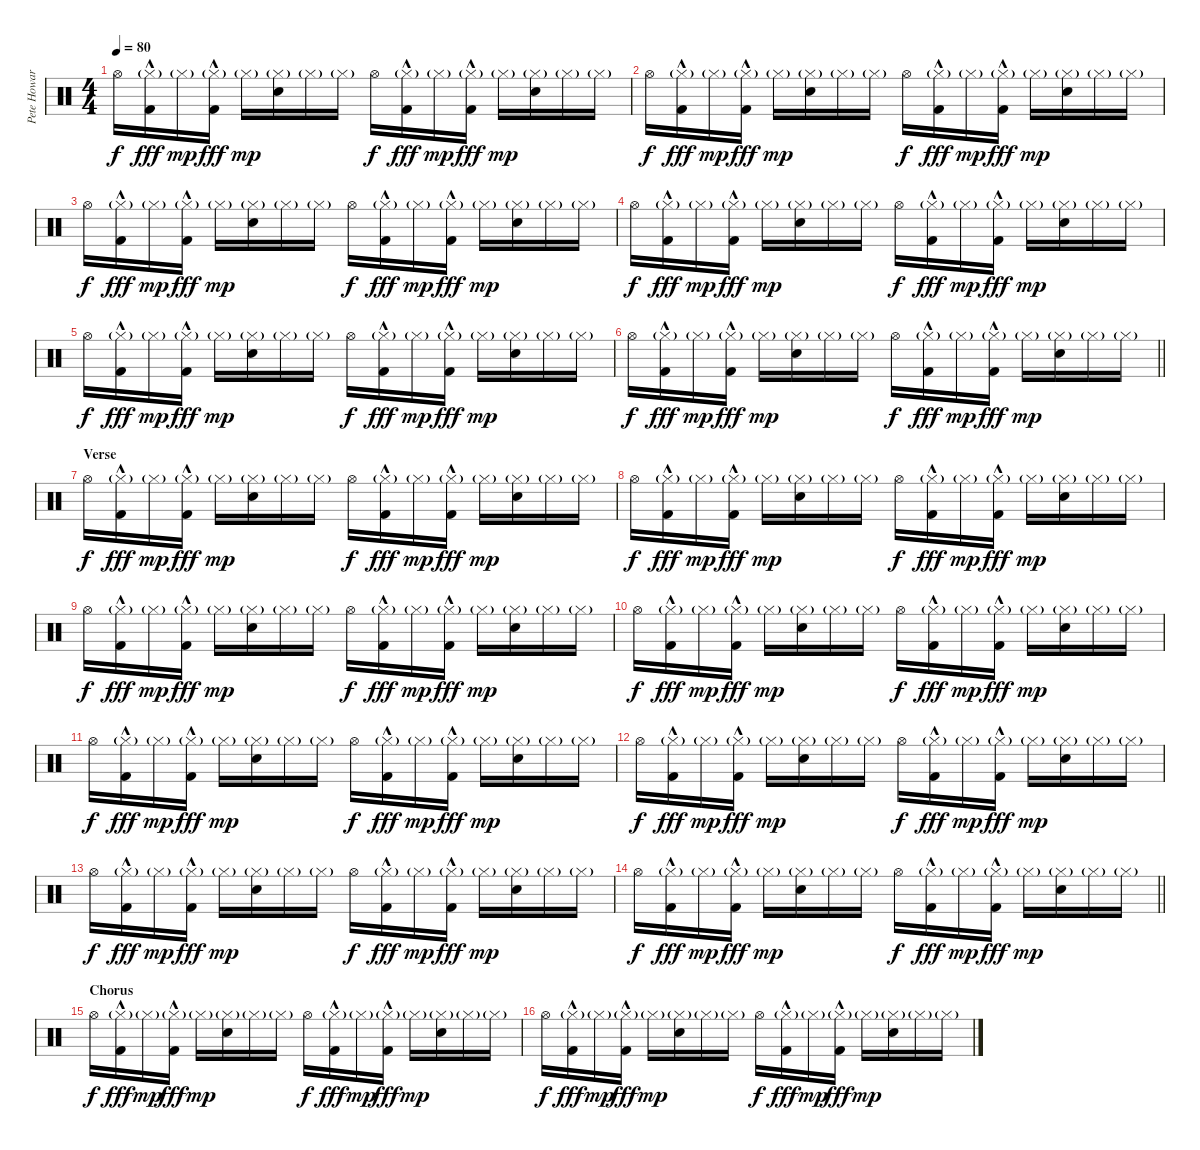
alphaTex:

\track ("Pete Howard - Drums" "Pete Howar") {instrument percussion}
\staff {score}
\articulation defaults
\ts (4 4)
\tempo 80
\clef neutral
\ks c "Hi-Hat (open)".16{dy f}
("Hi-Hat (closed)"{g} "Kick (hit) 2"{hac}).16{dy fff} "Hi-Hat (closed)"{g}.16{dy mp} ("Hi-Hat (closed)"{g} "Kick (hit) 2"{hac}).16{dy fff} "Hi-Hat (closed)"{g}.16{dy mp} ("Hi-Hat (closed)"{g} "Electric Snare (hit)").16 "Hi-Hat (closed)"{g}.16 "Hi-Hat (closed)"{g}.16 "Hi-Hat (open)".16{dy f} ("Hi-Hat (closed)"{g} "Kick (hit) 2"{hac}).16{dy fff} "Hi-Hat (closed)"{g}.16{dy mp} ("Hi-Hat (closed)"{g} "Kick (hit) 2"{hac}).16{dy fff} "Hi-Hat (closed)"{g}.16{dy mp} ("Hi-Hat (closed)"{g} "Electric Snare (hit)").16 "Hi-Hat (closed)"{g}.16 "Hi-Hat (closed)"{g}.16 |
"Hi-Hat (open)".16{dy f} ("Hi-Hat (closed)"{g} "Kick (hit) 2"{hac}).16{dy fff} "Hi-Hat (closed)"{g}.16{dy mp} ("Hi-Hat (closed)"{g} "Kick (hit) 2"{hac}).16{dy fff} "Hi-Hat (closed)"{g}.16{dy mp} ("Hi-Hat (closed)"{g} "Electric Snare (hit)").16 "Hi-Hat (closed)"{g}.16 "Hi-Hat (closed)"{g}.16 "Hi-Hat (open)".16{dy f} ("Hi-Hat (closed)"{g} "Kick (hit) 2"{hac}).16{dy fff} "Hi-Hat (closed)"{g}.16{dy mp} ("Hi-Hat (closed)"{g} "Kick (hit) 2"{hac}).16{dy fff} "Hi-Hat (closed)"{g}.16{dy mp} ("Hi-Hat (closed)"{g} "Electric Snare (hit)").16 "Hi-Hat (closed)"{g}.16 "Hi-Hat (closed)"{g}.16 |
"Hi-Hat (open)".16{dy f} ("Hi-Hat (closed)"{g} "Kick (hit) 2"{hac}).16{dy fff} "Hi-Hat (closed)"{g}.16{dy mp} ("Hi-Hat (closed)"{g} "Kick (hit) 2"{hac}).16{dy fff} "Hi-Hat (closed)"{g}.16{dy mp} ("Hi-Hat (closed)"{g} "Electric Snare (hit)").16 "Hi-Hat (closed)"{g}.16 "Hi-Hat (closed)"{g}.16 "Hi-Hat (open)".16{dy f} ("Hi-Hat (closed)"{g} "Kick (hit) 2"{hac}).16{dy fff} "Hi-Hat (closed)"{g}.16{dy mp} ("Hi-Hat (closed)"{g} "Kick (hit) 2"{hac}).16{dy fff} "Hi-Hat (closed)"{g}.16{dy mp} ("Hi-Hat (closed)"{g} "Electric Snare (hit)").16 "Hi-Hat (closed)"{g}.16 "Hi-Hat (closed)"{g}.16 |
"Hi-Hat (open)".16{dy f} ("Hi-Hat (closed)"{g} "Kick (hit) 2"{hac}).16{dy fff} "Hi-Hat (closed)"{g}.16{dy mp} ("Hi-Hat (closed)"{g} "Kick (hit) 2"{hac}).16{dy fff} "Hi-Hat (closed)"{g}.16{dy mp} ("Hi-Hat (closed)"{g} "Electric Snare (hit)").16 "Hi-Hat (closed)"{g}.16 "Hi-Hat (closed)"{g}.16 "Hi-Hat (open)".16{dy f} ("Hi-Hat (closed)"{g} "Kick (hit) 2"{hac}).16{dy fff} "Hi-Hat (closed)"{g}.16{dy mp} ("Hi-Hat (closed)"{g} "Kick (hit) 2"{hac}).16{dy fff} "Hi-Hat (closed)"{g}.16{dy mp} ("Hi-Hat (closed)"{g} "Electric Snare (hit)").16 "Hi-Hat (closed)"{g}.16 "Hi-Hat (closed)"{g}.16 |
"Hi-Hat (open)".16{dy f} ("Hi-Hat (closed)"{g} "Kick (hit) 2"{hac}).16{dy fff} "Hi-Hat (closed)"{g}.16{dy mp} ("Hi-Hat (closed)"{g} "Kick (hit) 2"{hac}).16{dy fff} "Hi-Hat (closed)"{g}.16{dy mp} ("Hi-Hat (closed)"{g} "Electric Snare (hit)").16 "Hi-Hat (closed)"{g}.16 "Hi-Hat (closed)"{g}.16 "Hi-Hat (open)".16{dy f} ("Hi-Hat (closed)"{g} "Kick (hit) 2"{hac}).16{dy fff} "Hi-Hat (closed)"{g}.16{dy mp} ("Hi-Hat (closed)"{g} "Kick (hit) 2"{hac}).16{dy fff} "Hi-Hat (closed)"{g}.16{dy mp} ("Hi-Hat (closed)"{g} "Electric Snare (hit)").16 "Hi-Hat (closed)"{g}.16 "Hi-Hat (closed)"{g}.16 |
\barLineRight lightlight "Hi-Hat (open)".16{dy f}
("Hi-Hat (closed)"{g} "Kick (hit) 2"{hac}).16{dy fff} "Hi-Hat (closed)"{g}.16{dy mp} ("Hi-Hat (closed)"{g} "Kick (hit) 2"{hac}).16{dy fff} "Hi-Hat (closed)"{g}.16{dy mp} ("Hi-Hat (closed)"{g} "Electric Snare (hit)").16 "Hi-Hat (closed)"{g}.16 "Hi-Hat (closed)"{g}.16 "Hi-Hat (open)".16{dy f} ("Hi-Hat (closed)"{g} "Kick (hit) 2"{hac}).16{dy fff} "Hi-Hat (closed)"{g}.16{dy mp} ("Hi-Hat (closed)"{g} "Kick (hit) 2"{hac}).16{dy fff} "Hi-Hat (closed)"{g}.16{dy mp} ("Hi-Hat (closed)"{g} "Electric Snare (hit)").16 "Hi-Hat (closed)"{g}.16 "Hi-Hat (closed)"{g}.16 |
\section ("" "Verse")
"Hi-Hat (open)".16{dy f} ("Hi-Hat (closed)"{g} "Kick (hit) 2"{hac}).16{dy fff} "Hi-Hat (closed)"{g}.16{dy mp} ("Hi-Hat (closed)"{g} "Kick (hit) 2"{hac}).16{dy fff} "Hi-Hat (closed)"{g}.16{dy mp} ("Hi-Hat (closed)"{g} "Electric Snare (hit)").16 "Hi-Hat (closed)"{g}.16 "Hi-Hat (closed)"{g}.16 "Hi-Hat (open)".16{dy f} ("Hi-Hat (closed)"{g} "Kick (hit) 2"{hac}).16{dy fff} "Hi-Hat (closed)"{g}.16{dy mp} ("Hi-Hat (closed)"{g} "Kick (hit) 2"{hac}).16{dy fff} "Hi-Hat (closed)"{g}.16{dy mp} ("Hi-Hat (closed)"{g} "Electric Snare (hit)").16 "Hi-Hat (closed)"{g}.16 "Hi-Hat (closed)"{g}.16 |
"Hi-Hat (open)".16{dy f} ("Hi-Hat (closed)"{g} "Kick (hit) 2"{hac}).16{dy fff} "Hi-Hat (closed)"{g}.16{dy mp} ("Hi-Hat (closed)"{g} "Kick (hit) 2"{hac}).16{dy fff} "Hi-Hat (closed)"{g}.16{dy mp} ("Hi-Hat (closed)"{g} "Electric Snare (hit)").16 "Hi-Hat (closed)"{g}.16 "Hi-Hat (closed)"{g}.16 "Hi-Hat (open)".16{dy f} ("Hi-Hat (closed)"{g} "Kick (hit) 2"{hac}).16{dy fff} "Hi-Hat (closed)"{g}.16{dy mp} ("Hi-Hat (closed)"{g} "Kick (hit) 2"{hac}).16{dy fff} "Hi-Hat (closed)"{g}.16{dy mp} ("Hi-Hat (closed)"{g} "Electric Snare (hit)").16 "Hi-Hat (closed)"{g}.16 "Hi-Hat (closed)"{g}.16 |
"Hi-Hat (open)".16{dy f} ("Hi-Hat (closed)"{g} "Kick (hit) 2"{hac}).16{dy fff} "Hi-Hat (closed)"{g}.16{dy mp} ("Hi-Hat (closed)"{g} "Kick (hit) 2"{hac}).16{dy fff} "Hi-Hat (closed)"{g}.16{dy mp} ("Hi-Hat (closed)"{g} "Electric Snare (hit)").16 "Hi-Hat (closed)"{g}.16 "Hi-Hat (closed)"{g}.16 "Hi-Hat (open)".16{dy f} ("Hi-Hat (closed)"{g} "Kick (hit) 2"{hac}).16{dy fff} "Hi-Hat (closed)"{g}.16{dy mp} ("Hi-Hat (closed)"{g} "Kick (hit) 2"{hac}).16{dy fff} "Hi-Hat (closed)"{g}.16{dy mp} ("Hi-Hat (closed)"{g} "Electric Snare (hit)").16 "Hi-Hat (closed)"{g}.16 "Hi-Hat (closed)"{g}.16 |
"Hi-Hat (open)".16{dy f} ("Hi-Hat (closed)"{g} "Kick (hit) 2"{hac}).16{dy fff} "Hi-Hat (closed)"{g}.16{dy mp} ("Hi-Hat (closed)"{g} "Kick (hit) 2"{hac}).16{dy fff} "Hi-Hat (closed)"{g}.16{dy mp} ("Hi-Hat (closed)"{g} "Electric Snare (hit)").16 "Hi-Hat (closed)"{g}.16 "Hi-Hat (closed)"{g}.16 "Hi-Hat (open)".16{dy f} ("Hi-Hat (closed)"{g} "Kick (hit) 2"{hac}).16{dy fff} "Hi-Hat (closed)"{g}.16{dy mp} ("Hi-Hat (closed)"{g} "Kick (hit) 2"{hac}).16{dy fff} "Hi-Hat (closed)"{g}.16{dy mp} ("Hi-Hat (closed)"{g} "Electric Snare (hit)").16 "Hi-Hat (closed)"{g}.16 "Hi-Hat (closed)"{g}.16 |
"Hi-Hat (open)".16{dy f} ("Hi-Hat (closed)"{g} "Kick (hit) 2"{hac}).16{dy fff} "Hi-Hat (closed)"{g}.16{dy mp} ("Hi-Hat (closed)"{g} "Kick (hit) 2"{hac}).16{dy fff} "Hi-Hat (closed)"{g}.16{dy mp} ("Hi-Hat (closed)"{g} "Electric Snare (hit)").16 "Hi-Hat (closed)"{g}.16 "Hi-Hat (closed)"{g}.16 "Hi-Hat (open)".16{dy f} ("Hi-Hat (closed)"{g} "Kick (hit) 2"{hac}).16{dy fff} "Hi-Hat (closed)"{g}.16{dy mp} ("Hi-Hat (closed)"{g} "Kick (hit) 2"{hac}).16{dy fff} "Hi-Hat (closed)"{g}.16{dy mp} ("Hi-Hat (closed)"{g} "Electric Snare (hit)").16 "Hi-Hat (closed)"{g}.16 "Hi-Hat (closed)"{g}.16 |
"Hi-Hat (open)".16{dy f} ("Hi-Hat (closed)"{g} "Kick (hit) 2"{hac}).16{dy fff} "Hi-Hat (closed)"{g}.16{dy mp} ("Hi-Hat (closed)"{g} "Kick (hit) 2"{hac}).16{dy fff} "Hi-Hat (closed)"{g}.16{dy mp} ("Hi-Hat (closed)"{g} "Electric Snare (hit)").16 "Hi-Hat (closed)"{g}.16 "Hi-Hat (closed)"{g}.16 "Hi-Hat (open)".16{dy f} ("Hi-Hat (closed)"{g} "Kick (hit) 2"{hac}).16{dy fff} "Hi-Hat (closed)"{g}.16{dy mp} ("Hi-Hat (closed)"{g} "Kick (hit) 2"{hac}).16{dy fff} "Hi-Hat (closed)"{g}.16{dy mp} ("Hi-Hat (closed)"{g} "Electric Snare (hit)").16 "Hi-Hat (closed)"{g}.16 "Hi-Hat (closed)"{g}.16 |
"Hi-Hat (open)".16{dy f} ("Hi-Hat (closed)"{g} "Kick (hit) 2"{hac}).16{dy fff} "Hi-Hat (closed)"{g}.16{dy mp} ("Hi-Hat (closed)"{g} "Kick (hit) 2"{hac}).16{dy fff} "Hi-Hat (closed)"{g}.16{dy mp} ("Hi-Hat (closed)"{g} "Electric Snare (hit)").16 "Hi-Hat (closed)"{g}.16 "Hi-Hat (closed)"{g}.16 "Hi-Hat (open)".16{dy f} ("Hi-Hat (closed)"{g} "Kick (hit) 2"{hac}).16{dy fff} "Hi-Hat (closed)"{g}.16{dy mp} ("Hi-Hat (closed)"{g} "Kick (hit) 2"{hac}).16{dy fff} "Hi-Hat (closed)"{g}.16{dy mp} ("Hi-Hat (closed)"{g} "Electric Snare (hit)").16 "Hi-Hat (closed)"{g}.16 "Hi-Hat (closed)"{g}.16 |
\barLineRight lightlight "Hi-Hat (open)".16{dy f}
("Hi-Hat (closed)"{g} "Kick (hit) 2"{hac}).16{dy fff} "Hi-Hat (closed)"{g}.16{dy mp} ("Hi-Hat (closed)"{g} "Kick (hit) 2"{hac}).16{dy fff} "Hi-Hat (closed)"{g}.16{dy mp} ("Hi-Hat (closed)"{g} "Electric Snare (hit)").16 "Hi-Hat (closed)"{g}.16 "Hi-Hat (closed)"{g}.16 "Hi-Hat (open)".16{dy f} ("Hi-Hat (closed)"{g} "Kick (hit) 2"{hac}).16{dy fff} "Hi-Hat (closed)"{g}.16{dy mp} ("Hi-Hat (closed)"{g} "Kick (hit) 2"{hac}).16{dy fff} "Hi-Hat (closed)"{g}.16{dy mp} ("Hi-Hat (closed)"{g} "Electric Snare (hit)").16 "Hi-Hat (closed)"{g}.16 "Hi-Hat (closed)"{g}.16 |
\section ("" "Chorus")
"Hi-Hat (open)".16{dy f} ("Hi-Hat (closed)"{g} "Kick (hit) 2"{hac}).16{dy fff} "Hi-Hat (closed)"{g}.16{dy mp} ("Hi-Hat (closed)"{g} "Kick (hit) 2"{hac}).16{dy fff} "Hi-Hat (closed)"{g}.16{dy mp} ("Hi-Hat (closed)"{g} "Electric Snare (hit)").16 "Hi-Hat (closed)"{g}.16 "Hi-Hat (closed)"{g}.16 "Hi-Hat (open)".16{dy f} ("Hi-Hat (closed)"{g} "Kick (hit) 2"{hac}).16{dy fff} "Hi-Hat (closed)"{g}.16{dy mp} ("Hi-Hat (closed)"{g} "Kick (hit) 2"{hac}).16{dy fff} "Hi-Hat (closed)"{g}.16{dy mp} ("Hi-Hat (closed)"{g} "Electric Snare (hit)").16 "Hi-Hat (closed)"{g}.16 "Hi-Hat (closed)"{g}.16 |
"Hi-Hat (open)".16{dy f} ("Hi-Hat (closed)"{g} "Kick (hit) 2"{hac}).16{dy fff} "Hi-Hat (closed)"{g}.16{dy mp} ("Hi-Hat (closed)"{g} "Kick (hit) 2"{hac}).16{dy fff} "Hi-Hat (closed)"{g}.16{dy mp} ("Hi-Hat (closed)"{g} "Electric Snare (hit)").16 "Hi-Hat (closed)"{g}.16 "Hi-Hat (closed)"{g}.16 "Hi-Hat (open)".16{dy f} ("Hi-Hat (closed)"{g} "Kick (hit) 2"{hac}).16{dy fff} "Hi-Hat (closed)"{g}.16{dy mp} ("Hi-Hat (closed)"{g} "Kick (hit) 2"{hac}).16{dy fff} "Hi-Hat (closed)"{g}.16{dy mp} ("Hi-Hat (closed)"{g} "Electric Snare (hit)").16 "Hi-Hat (closed)"{g}.16 "Hi-Hat (closed)"{g}.16
